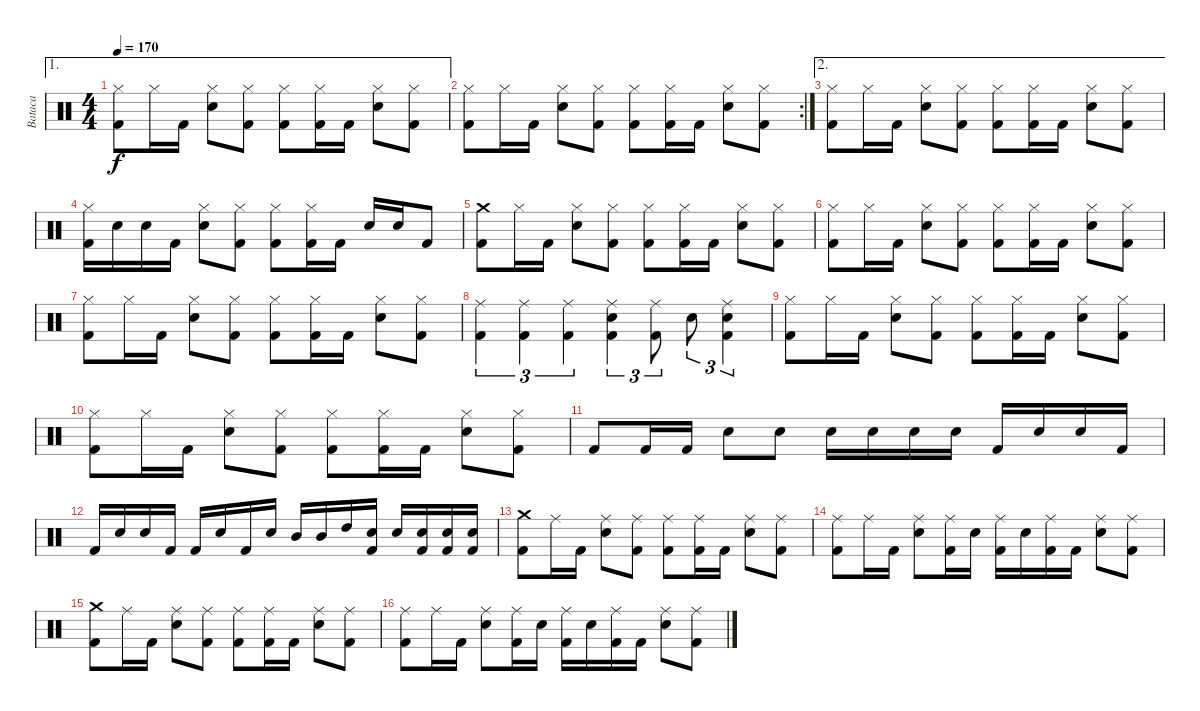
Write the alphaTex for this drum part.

\track ("Bataca" "Bataca") {instrument percussion}
\staff {score}
\articulation defaults
\ae 1
\ts (4 4)
\tempo 170
\clef neutral
\ks c
("Hi-Hat (closed)" "Kick (hit) 2").8{dy f} "Hi-Hat (closed)".16 "Kick (hit) 2".16 ("Hi-Hat (closed)" "Electric Snare (hit)").8 ("Hi-Hat (closed)" "Kick (hit) 2").8 ("Hi-Hat (closed)" "Kick (hit) 2").8 ("Hi-Hat (closed)" "Kick (hit) 2").16 "Kick (hit) 2".16 ("Hi-Hat (closed)" "Electric Snare (hit)").8 ("Hi-Hat (closed)" "Kick (hit) 2").8 |
\rc 2
("Hi-Hat (closed)" "Kick (hit) 2").8 "Hi-Hat (closed)".16 "Kick (hit) 2".16 ("Hi-Hat (closed)" "Electric Snare (hit)").8 ("Hi-Hat (closed)" "Kick (hit) 2").8 ("Hi-Hat (closed)" "Kick (hit) 2").8 ("Hi-Hat (closed)" "Kick (hit) 2").16 "Kick (hit) 2".16 ("Hi-Hat (closed)" "Electric Snare (hit)").8 ("Hi-Hat (closed)" "Kick (hit) 2").8 |
\ae 2
("Hi-Hat (closed)" "Kick (hit) 2").8 "Hi-Hat (closed)".16 "Kick (hit) 2".16 ("Hi-Hat (closed)" "Electric Snare (hit)").8 ("Hi-Hat (closed)" "Kick (hit) 2").8 ("Hi-Hat (closed)" "Kick (hit) 2").8 ("Hi-Hat (closed)" "Kick (hit) 2").16 "Kick (hit) 2".16 ("Hi-Hat (closed)" "Electric Snare (hit)").8 ("Hi-Hat (closed)" "Kick (hit) 2").8 |
("Hi-Hat (closed)" "Kick (hit) 2").16 "Electric Snare (hit)".16 "Electric Snare (hit)".16 "Kick (hit) 2".16 ("Hi-Hat (closed)" "Electric Snare (hit)").8 ("Hi-Hat (closed)" "Kick (hit) 2").8 ("Hi-Hat (closed)" "Kick (hit) 2").8 ("Hi-Hat (closed)" "Kick (hit) 2").16 "Kick (hit) 2".16 "Electric Snare (hit)".16 "Electric Snare (hit)".16 "Kick (hit) 2".8 |
("Crash medium (hit)" "Kick (hit) 2").8 "Hi-Hat (closed)".16 "Kick (hit) 2".16 ("Hi-Hat (closed)" "Electric Snare (hit)").8 ("Hi-Hat (closed)" "Kick (hit) 2").8 ("Hi-Hat (closed)" "Kick (hit) 2").8 ("Hi-Hat (closed)" "Kick (hit) 2").16 "Kick (hit) 2".16 ("Hi-Hat (closed)" "Electric Snare (hit)").8 ("Hi-Hat (closed)" "Kick (hit) 2").8 |
("Hi-Hat (closed)" "Kick (hit) 2").8 "Hi-Hat (closed)".16 "Kick (hit) 2".16 ("Hi-Hat (closed)" "Electric Snare (hit)").8 ("Hi-Hat (closed)" "Kick (hit) 2").8 ("Hi-Hat (closed)" "Kick (hit) 2").8 ("Hi-Hat (closed)" "Kick (hit) 2").16 "Kick (hit) 2".16 ("Hi-Hat (closed)" "Electric Snare (hit)").8 ("Hi-Hat (closed)" "Kick (hit) 2").8 |
("Hi-Hat (closed)" "Kick (hit) 2").8 "Hi-Hat (closed)".16 "Kick (hit) 2".16 ("Hi-Hat (closed)" "Electric Snare (hit)").8 ("Hi-Hat (closed)" "Kick (hit) 2").8 ("Hi-Hat (closed)" "Kick (hit) 2").8 ("Hi-Hat (closed)" "Kick (hit) 2").16 "Kick (hit) 2".16 ("Hi-Hat (closed)" "Electric Snare (hit)").8 ("Hi-Hat (closed)" "Kick (hit) 2").8 |
("Ride (middle)" "Kick (hit) 2").4{tu (3 2)} ("Ride (middle)" "Kick (hit) 2").4{tu (3 2)} ("Ride (middle)" "Kick (hit) 2").4{tu (3 2)} ("Ride (middle)" "Electric Snare (hit)" "Kick (hit) 2").4{tu (3 2)} ("Ride (middle)" "Kick (hit) 2").8{tu (3 2)} "Electric Snare (hit)".8{tu (3 2)} ("Ride (middle)" "Electric Snare (hit)" "Kick (hit) 2").4{tu (3 2)} |
("Hi-Hat (closed)" "Kick (hit) 2").8 "Hi-Hat (closed)".16 "Kick (hit) 2".16 ("Hi-Hat (closed)" "Electric Snare (hit)").8 ("Hi-Hat (closed)" "Kick (hit) 2").8 ("Hi-Hat (closed)" "Kick (hit) 2").8 ("Hi-Hat (closed)" "Kick (hit) 2").16 "Kick (hit) 2".16 ("Hi-Hat (closed)" "Electric Snare (hit)").8 ("Hi-Hat (closed)" "Kick (hit) 2").8 |
("Hi-Hat (closed)" "Kick (hit) 2").8 "Hi-Hat (closed)".16 "Kick (hit) 2".16 ("Hi-Hat (closed)" "Electric Snare (hit)").8 ("Hi-Hat (closed)" "Kick (hit) 2").8 ("Hi-Hat (closed)" "Kick (hit) 2").8 ("Hi-Hat (closed)" "Kick (hit) 2").16 "Kick (hit) 2".16 ("Hi-Hat (closed)" "Electric Snare (hit)").8 ("Hi-Hat (closed)" "Kick (hit) 2").8 |
"Kick (hit) 2".8 "Kick (hit) 2".16 "Kick (hit) 2".16 "Electric Snare (hit)".8 "Electric Snare (hit)".8 "Electric Snare (hit)".16 "Electric Snare (hit)".16 "Electric Snare (hit)".16 "Electric Snare (hit)".16 "Kick (hit) 2".16 "Electric Snare (hit)".16 "Electric Snare (hit)".16 "Kick (hit) 2".16 |
"Kick (hit) 2".16 "Electric Snare (hit)".16 "Electric Snare (hit)".16 "Kick (hit) 2".16 "Kick (hit) 2".16 "Electric Snare (hit)".16 "Kick (hit) 2".16 "Electric Snare (hit)".16 "Mid Tom (hit)".16 "Mid Tom (hit)".16 "High Tom (hit)".16 ("Electric Snare (hit)" "Kick (hit) 2").16 "Electric Snare (hit)".16 ("Electric Snare (hit)" "Kick (hit) 2").16 ("Electric Snare (hit)" "Kick (hit) 2").16 ("Electric Snare (hit)" "Kick (hit) 2").16 |
("Crash medium (hit)" "Kick (hit) 2").8 "Ride (middle)".16 "Kick (hit) 2".16 ("Ride (middle)" "Electric Snare (hit)").8 ("Ride (middle)" "Kick (hit) 2").8 ("Ride (middle)" "Kick (hit) 2").8 ("Ride (middle)" "Kick (hit) 2").16 "Kick (hit) 2".16 ("Ride (middle)" "Electric Snare (hit)").8 ("Ride (middle)" "Kick (hit) 2").8 |
("Ride (middle)" "Kick (hit) 2").8 "Ride (middle)".16 "Kick (hit) 2".16 ("Ride (middle)" "Electric Snare (hit)").8 ("Ride (middle)" "Kick (hit) 2").16 "Electric Snare (hit)".16 ("Ride (middle)" "Kick (hit) 2").16 "Electric Snare (hit)".16 ("Ride (middle)" "Kick (hit) 2").16 "Kick (hit) 2".16 ("Ride (middle)" "Electric Snare (hit)").8 ("Ride (middle)" "Kick (hit) 2").8 |
("Crash medium (hit)" "Kick (hit) 2").8 "Ride (middle)".16 "Kick (hit) 2".16 ("Ride (middle)" "Electric Snare (hit)").8 ("Ride (middle)" "Kick (hit) 2").8 ("Ride (middle)" "Kick (hit) 2").8 ("Ride (middle)" "Kick (hit) 2").16 "Kick (hit) 2".16 ("Ride (middle)" "Electric Snare (hit)").8 ("Ride (middle)" "Kick (hit) 2").8 |
("Ride (middle)" "Kick (hit) 2").8 "Ride (middle)".16 "Kick (hit) 2".16 ("Ride (middle)" "Electric Snare (hit)").8 ("Ride (middle)" "Kick (hit) 2").16 "Electric Snare (hit)".16 ("Ride (middle)" "Kick (hit) 2").16 "Electric Snare (hit)".16 ("Ride (middle)" "Kick (hit) 2").16 "Kick (hit) 2".16 ("Ride (middle)" "Electric Snare (hit)").8 ("Ride (middle)" "Kick (hit) 2").8
